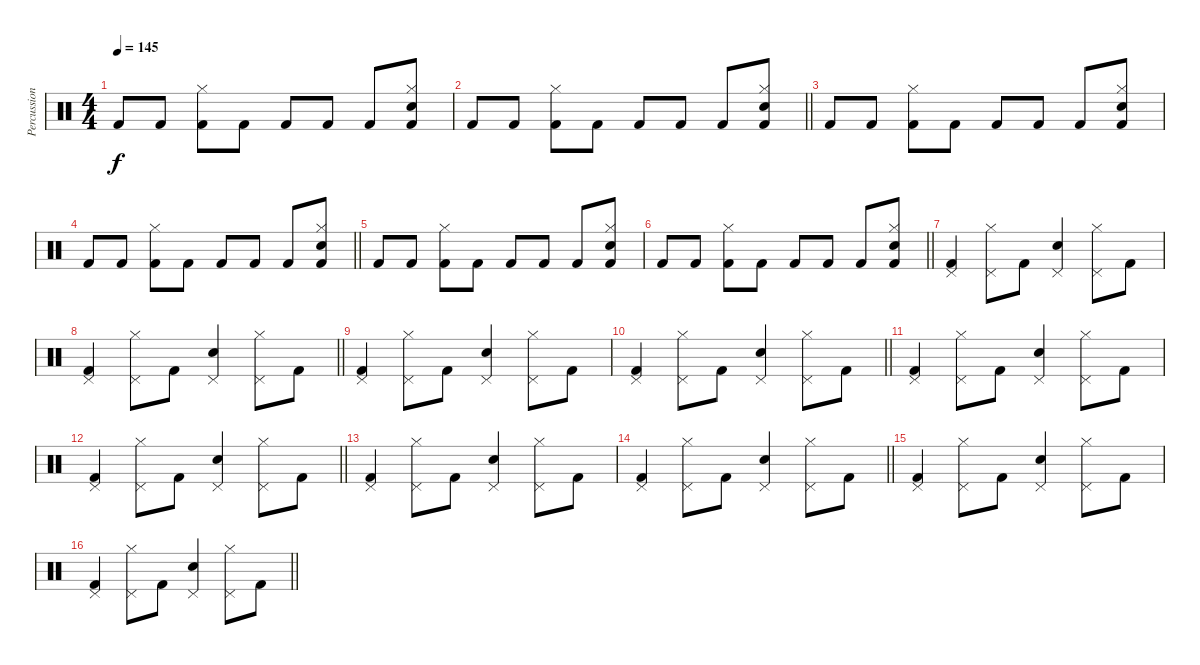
\track ("Percussion" "Percussion") {instrument percussion}
\staff {score}
\articulation defaults
\ts (4 4)
\tempo 145
\clef neutral
\ks c "Kick (hit) 2".8{dy f} "Kick (hit) 2".8
("Hi-Hat (closed)" "Kick (hit) 2").8 "Kick (hit) 2".8 "Kick (hit) 2".8 "Kick (hit) 2".8 "Kick (hit) 2".8 ("Hi-Hat (closed)" "Snare (hit) 2" "Kick (hit) 2").8 |
\barLineRight lightlight "Kick (hit) 2".8 "Kick (hit) 2".8
("Hi-Hat (closed)" "Kick (hit) 2").8 "Kick (hit) 2".8 "Kick (hit) 2".8 "Kick (hit) 2".8 "Kick (hit) 2".8 ("Hi-Hat (closed)" "Snare (hit) 2" "Kick (hit) 2").8 |
"Kick (hit) 2".8 "Kick (hit) 2".8 ("Hi-Hat (closed)" "Kick (hit) 2").8 "Kick (hit) 2".8 "Kick (hit) 2".8 "Kick (hit) 2".8 "Kick (hit) 2".8 ("Hi-Hat (closed)" "Snare (hit) 2" "Kick (hit) 2").8 |
\barLineRight lightlight "Kick (hit) 2".8 "Kick (hit) 2".8
("Hi-Hat (closed)" "Kick (hit) 2").8 "Kick (hit) 2".8 "Kick (hit) 2".8 "Kick (hit) 2".8 "Kick (hit) 2".8 ("Hi-Hat (closed)" "Snare (hit) 2" "Kick (hit) 2").8 |
"Kick (hit) 2".8 "Kick (hit) 2".8 ("Hi-Hat (closed)" "Kick (hit) 2").8 "Kick (hit) 2".8 "Kick (hit) 2".8 "Kick (hit) 2".8 "Kick (hit) 2".8 ("Hi-Hat (closed)" "Snare (hit) 2" "Kick (hit) 2").8 |
\barLineRight lightlight "Kick (hit) 2".8 "Kick (hit) 2".8
("Hi-Hat (closed)" "Kick (hit) 2").8 "Kick (hit) 2".8 "Kick (hit) 2".8 "Kick (hit) 2".8 "Kick (hit) 2".8 ("Hi-Hat (closed)" "Snare (hit) 2" "Kick (hit) 2").8 |
("Kick (hit) 2" "Pedal Hi-Hat (hit)").4 ("Hi-Hat (closed)" "Pedal Hi-Hat (hit)").8 "Kick (hit) 2".8 ("Snare (hit) 2" "Pedal Hi-Hat (hit)").4 ("Hi-Hat (closed)" "Pedal Hi-Hat (hit)").8 "Kick (hit) 2".8 |
\barLineRight lightlight
("Kick (hit) 2" "Pedal Hi-Hat (hit)").4 ("Hi-Hat (closed)" "Pedal Hi-Hat (hit)").8 "Kick (hit) 2".8 ("Snare (hit) 2" "Pedal Hi-Hat (hit)").4 ("Hi-Hat (closed)" "Pedal Hi-Hat (hit)").8 "Kick (hit) 2".8 |
("Kick (hit) 2" "Pedal Hi-Hat (hit)").4 ("Hi-Hat (closed)" "Pedal Hi-Hat (hit)").8 "Kick (hit) 2".8 ("Snare (hit) 2" "Pedal Hi-Hat (hit)").4 ("Hi-Hat (closed)" "Pedal Hi-Hat (hit)").8 "Kick (hit) 2".8 |
\barLineRight lightlight
("Kick (hit) 2" "Pedal Hi-Hat (hit)").4 ("Hi-Hat (closed)" "Pedal Hi-Hat (hit)").8 "Kick (hit) 2".8 ("Snare (hit) 2" "Pedal Hi-Hat (hit)").4 ("Hi-Hat (closed)" "Pedal Hi-Hat (hit)").8 "Kick (hit) 2".8 |
("Kick (hit) 2" "Pedal Hi-Hat (hit)").4 ("Hi-Hat (closed)" "Pedal Hi-Hat (hit)").8 "Kick (hit) 2".8 ("Snare (hit) 2" "Pedal Hi-Hat (hit)").4 ("Hi-Hat (closed)" "Pedal Hi-Hat (hit)").8 "Kick (hit) 2".8 |
\barLineRight lightlight
("Kick (hit) 2" "Pedal Hi-Hat (hit)").4 ("Hi-Hat (closed)" "Pedal Hi-Hat (hit)").8 "Kick (hit) 2".8 ("Snare (hit) 2" "Pedal Hi-Hat (hit)").4 ("Hi-Hat (closed)" "Pedal Hi-Hat (hit)").8 "Kick (hit) 2".8 |
("Kick (hit) 2" "Pedal Hi-Hat (hit)").4 ("Hi-Hat (closed)" "Pedal Hi-Hat (hit)").8 "Kick (hit) 2".8 ("Snare (hit) 2" "Pedal Hi-Hat (hit)").4 ("Hi-Hat (closed)" "Pedal Hi-Hat (hit)").8 "Kick (hit) 2".8 |
\barLineRight lightlight
("Kick (hit) 2" "Pedal Hi-Hat (hit)").4 ("Hi-Hat (closed)" "Pedal Hi-Hat (hit)").8 "Kick (hit) 2".8 ("Snare (hit) 2" "Pedal Hi-Hat (hit)").4 ("Hi-Hat (closed)" "Pedal Hi-Hat (hit)").8 "Kick (hit) 2".8 |
("Kick (hit) 2" "Pedal Hi-Hat (hit)").4 ("Hi-Hat (closed)" "Pedal Hi-Hat (hit)").8 "Kick (hit) 2".8 ("Snare (hit) 2" "Pedal Hi-Hat (hit)").4 ("Hi-Hat (closed)" "Pedal Hi-Hat (hit)").8 "Kick (hit) 2".8 |
\barLineRight lightlight
("Kick (hit) 2" "Pedal Hi-Hat (hit)").4 ("Hi-Hat (closed)" "Pedal Hi-Hat (hit)").8 "Kick (hit) 2".8 ("Snare (hit) 2" "Pedal Hi-Hat (hit)").4 ("Hi-Hat (closed)" "Pedal Hi-Hat (hit)").8 "Kick (hit) 2".8
